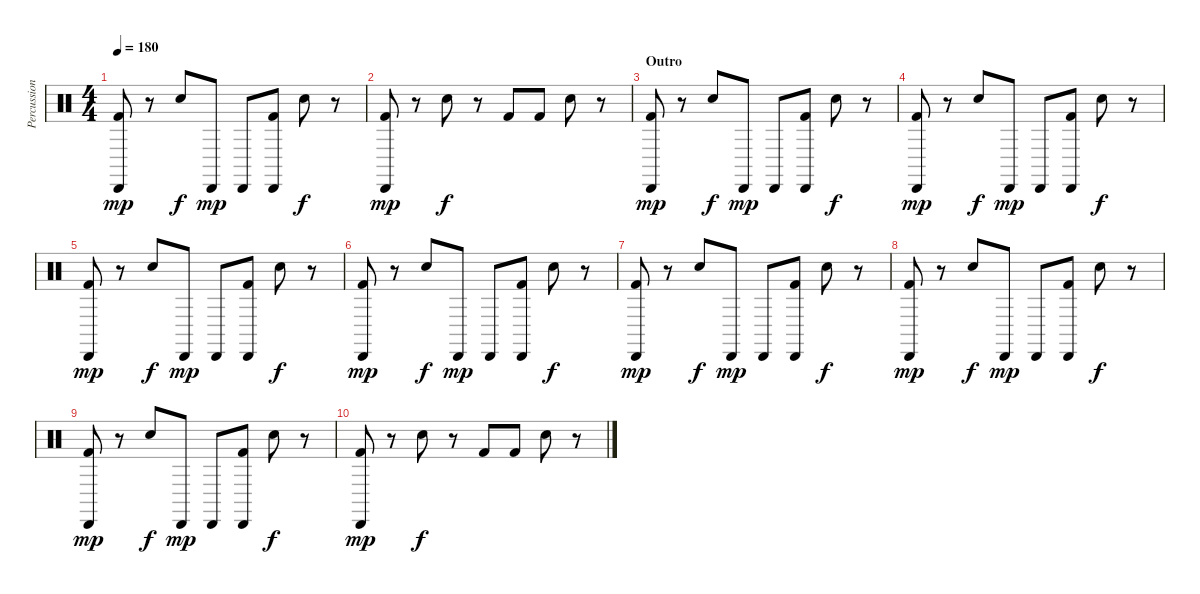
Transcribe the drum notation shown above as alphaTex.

\track ("Percussions" "Percussion") {instrument percussion}
\staff {score}
\articulation defaults
\ts (4 4)
\tempo 180
\clef neutral
\ks c
("Cabasa (hit)" "Kick (hit) 2").8{dy mp} r.8 "Electric Snare (hit)".8{dy f} "Cabasa (hit)".8{dy mp} "Cabasa (hit)".8 ("Cabasa (hit)" "Kick (hit) 2").8 "Electric Snare (hit)".8{dy f} r.8 |
("Cabasa (hit)" "Kick (hit) 2").8{dy mp} r.8 "Electric Snare (hit)".8{dy f} r.8 "Kick (hit) 2".8 "Kick (hit) 2".8 "Electric Snare (hit)".8 r.8 |
\section ("" "Outro")
("Cabasa (hit)" "Kick (hit) 2").8{dy mp} r.8 "Electric Snare (hit)".8{dy f} "Cabasa (hit)".8{dy mp} "Cabasa (hit)".8 ("Cabasa (hit)" "Kick (hit) 2").8 "Electric Snare (hit)".8{dy f} r.8 |
("Cabasa (hit)" "Kick (hit) 2").8{dy mp} r.8 "Electric Snare (hit)".8{dy f} "Cabasa (hit)".8{dy mp} "Cabasa (hit)".8 ("Cabasa (hit)" "Kick (hit) 2").8 "Electric Snare (hit)".8{dy f} r.8 |
("Cabasa (hit)" "Kick (hit) 2").8{dy mp} r.8 "Electric Snare (hit)".8{dy f} "Cabasa (hit)".8{dy mp} "Cabasa (hit)".8 ("Cabasa (hit)" "Kick (hit) 2").8 "Electric Snare (hit)".8{dy f} r.8 |
("Cabasa (hit)" "Kick (hit) 2").8{dy mp} r.8 "Electric Snare (hit)".8{dy f} "Cabasa (hit)".8{dy mp} "Cabasa (hit)".8 ("Cabasa (hit)" "Kick (hit) 2").8 "Electric Snare (hit)".8{dy f} r.8 |
("Cabasa (hit)" "Kick (hit) 2").8{dy mp} r.8 "Electric Snare (hit)".8{dy f} "Cabasa (hit)".8{dy mp} "Cabasa (hit)".8 ("Cabasa (hit)" "Kick (hit) 2").8 "Electric Snare (hit)".8{dy f} r.8 |
("Cabasa (hit)" "Kick (hit) 2").8{dy mp} r.8 "Electric Snare (hit)".8{dy f} "Cabasa (hit)".8{dy mp} "Cabasa (hit)".8 ("Cabasa (hit)" "Kick (hit) 2").8 "Electric Snare (hit)".8{dy f} r.8 |
("Cabasa (hit)" "Kick (hit) 2").8{dy mp} r.8 "Electric Snare (hit)".8{dy f} "Cabasa (hit)".8{dy mp} "Cabasa (hit)".8 ("Cabasa (hit)" "Kick (hit) 2").8 "Electric Snare (hit)".8{dy f} r.8 |
("Cabasa (hit)" "Kick (hit) 2").8{dy mp} r.8 "Electric Snare (hit)".8{dy f} r.8 "Kick (hit) 2".8 "Kick (hit) 2".8 "Electric Snare (hit)".8 r.8
